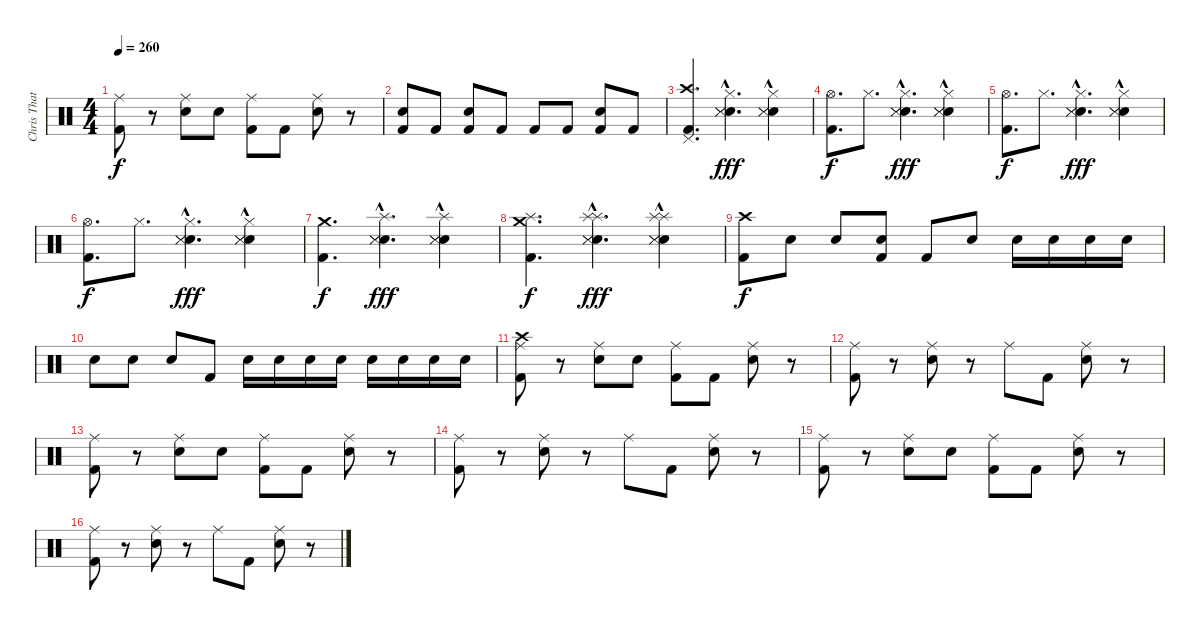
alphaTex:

\track ("Chris Thatcher    - Drums" "Chris That") {instrument percussion}
\staff {score}
\articulation defaults
\ts (4 4)
\tempo 260
\clef neutral
\ks c
("Ride (middle)" "Kick (hit) 2").8{dy f} r.8 ("Ride (middle)" "Electric Snare (hit)").8 "Electric Snare (hit)".8 ("Ride (middle)" "Kick (hit) 2").8 "Kick (hit) 2".8 ("Ride (middle)" "Electric Snare (hit)").8 r.8 |
("Kick (hit) 2" "Electric Snare (hit)").8 "Kick (hit) 2".8 ("Kick (hit) 2" "Electric Snare (hit)").8 "Kick (hit) 2".8 "Kick (hit) 2".8 "Kick (hit) 2".8 ("Kick (hit) 2" "Electric Snare (hit)").8 "Kick (hit) 2".8 |
("Crash high (hit)" "Pedal Hi-Hat (hit)" "Kick (hit) 2").4{d} ("Hi-Hat (closed)" "Electric Snare (hit)" "Snare (side stick) 3"{hac} "Snare (side stick) 3"{hac}).4{d dy fff} ("Hi-Hat (closed)" "Electric Snare (hit)" "Snare (side stick) 3"{hac} "Snare (side stick) 3"{hac}).4 |
("Hi-Hat (open)" "Kick (hit) 2").8{d dy f} "Hi-Hat (closed)".8{d} ("Hi-Hat (closed)" "Electric Snare (hit)" "Snare (side stick) 3"{hac} "Snare (side stick) 3"{hac}).4{d dy fff} ("Hi-Hat (closed)" "Electric Snare (hit)" "Snare (side stick) 3"{hac} "Snare (side stick) 3"{hac}).4 |
("Hi-Hat (open)" "Kick (hit) 2").8{d dy f} "Hi-Hat (closed)".8{d} ("Hi-Hat (closed)" "Electric Snare (hit)" "Snare (side stick) 3"{hac} "Snare (side stick) 3"{hac}).4{d dy fff} ("Hi-Hat (closed)" "Electric Snare (hit)" "Snare (side stick) 3"{hac} "Snare (side stick) 3"{hac}).4 |
("Hi-Hat (open)" "Kick (hit) 2").8{d dy f} "Hi-Hat (closed)".8{d} ("Hi-Hat (closed)" "Electric Snare (hit)" "Snare (side stick) 3"{hac} "Snare (side stick) 3"{hac}).4{d dy fff} ("Hi-Hat (closed)" "Electric Snare (hit)" "Snare (side stick) 3"{hac} "Snare (side stick) 3"{hac}).4 |
("Crash medium (hit)" "Kick (hit) 2").4{d dy f} ("Splash (hit)" "Electric Snare (hit)" "Snare (side stick) 3"{hac} "Snare (side stick) 3"{hac}).4{d dy fff} ("Splash (hit)" "Electric Snare (hit)" "Snare (side stick) 3"{hac} "Snare (side stick) 3"{hac}).4 |
("Splash (hit)" "Crash medium (hit)" "Kick (hit) 2").4{d dy f} ("Splash (hit)" "Splash (hit)" "Electric Snare (hit)" "Snare (side stick) 3"{hac} "Snare (side stick) 3"{hac}).4{d dy fff} ("Splash (hit)" "Splash (hit)" "Electric Snare (hit)" "Snare (side stick) 3"{hac} "Snare (side stick) 3"{hac}).4 |
("Crash high (hit)" "Kick (hit) 2").8{dy f} "Electric Snare (hit)".8 "Electric Snare (hit)".8 ("Kick (hit) 2" "Electric Snare (hit)").8 "Kick (hit) 2".8 "Electric Snare (hit)".8 "Electric Snare (hit)".16 "Electric Snare (hit)".16 "Electric Snare (hit)".16 "Electric Snare (hit)".16 |
"Electric Snare (hit)".8 "Electric Snare (hit)".8 "Electric Snare (hit)".8 "Kick (hit) 2".8 "Electric Snare (hit)".16 "Electric Snare (hit)".16 "Electric Snare (hit)".16 "Electric Snare (hit)".16 "Electric Snare (hit)".16 "Electric Snare (hit)".16 "Electric Snare (hit)".16 "Electric Snare (hit)".16 |
("Crash high (hit)" "Ride (middle)" "Kick (hit) 2").8 r.8 ("Ride (middle)" "Electric Snare (hit)").8 "Electric Snare (hit)".8 ("Ride (middle)" "Kick (hit) 2").8 "Kick (hit) 2".8 ("Ride (middle)" "Electric Snare (hit)").8 r.8 |
("Ride (middle)" "Kick (hit) 2").8 r.8 ("Ride (middle)" "Electric Snare (hit)").8 r.8 "Ride (middle)".8 "Kick (hit) 2".8 ("Ride (middle)" "Electric Snare (hit)").8 r.8 |
("Ride (middle)" "Kick (hit) 2").8 r.8 ("Ride (middle)" "Electric Snare (hit)").8 "Electric Snare (hit)".8 ("Ride (middle)" "Kick (hit) 2").8 "Kick (hit) 2".8 ("Ride (middle)" "Electric Snare (hit)").8 r.8 |
("Ride (middle)" "Kick (hit) 2").8 r.8 ("Ride (middle)" "Electric Snare (hit)").8 r.8 "Ride (middle)".8 "Kick (hit) 2".8 ("Ride (middle)" "Electric Snare (hit)").8 r.8 |
("Ride (middle)" "Kick (hit) 2").8 r.8 ("Ride (middle)" "Electric Snare (hit)").8 "Electric Snare (hit)".8 ("Ride (middle)" "Kick (hit) 2").8 "Kick (hit) 2".8 ("Ride (middle)" "Electric Snare (hit)").8 r.8 |
("Ride (middle)" "Kick (hit) 2").8 r.8 ("Ride (middle)" "Electric Snare (hit)").8 r.8 "Ride (middle)".8 "Kick (hit) 2".8 ("Ride (middle)" "Electric Snare (hit)").8 r.8
